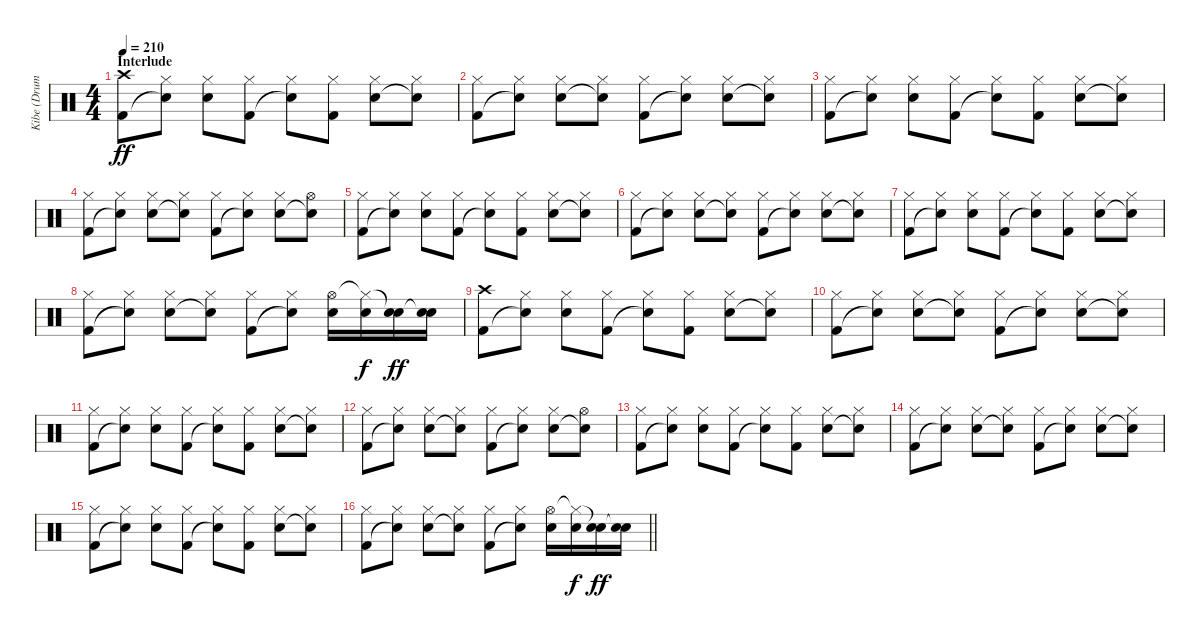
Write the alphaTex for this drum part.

\track ("Kibe (Drums)" "Kibe (Drum") {instrument percussion}
\staff {score}
\articulation defaults
\ts (4 4)
\section ("" "Interlude")
\tempo 210
\clef neutral
\ks c
("Crash high (hit)" "Kick (hit) 2").8{dy ff} ("Hi-Hat (closed)" "Snare (hit)"{t}).8 ("Hi-Hat (closed)" "Snare (hit) 2").8 ("Hi-Hat (closed)" "Kick (hit) 2").8 ("Hi-Hat (closed)" "Snare (hit)"{t}).8 ("Hi-Hat (closed)" "Kick (hit) 2").8 ("Hi-Hat (closed)" "Snare (hit) 2").8 ("Hi-Hat (closed)" "Snare (hit)"{t}).8 |
("Hi-Hat (closed)" "Kick (hit) 2").8 ("Hi-Hat (closed)" "Snare (hit)"{t}).8 ("Hi-Hat (closed)" "Snare (hit) 2").8 ("Hi-Hat (closed)" "Snare (hit)"{t}).8 ("Hi-Hat (closed)" "Kick (hit) 2").8 ("Hi-Hat (closed)" "Snare (hit)"{t}).8 ("Hi-Hat (closed)" "Snare (hit) 2").8 ("Hi-Hat (closed)" "Snare (hit)"{t}).8 |
("Hi-Hat (closed)" "Kick (hit) 2").8 ("Hi-Hat (closed)" "Snare (hit)"{t}).8 ("Hi-Hat (closed)" "Snare (hit) 2").8 ("Hi-Hat (closed)" "Kick (hit) 2").8 ("Hi-Hat (closed)" "Snare (hit)"{t}).8 ("Hi-Hat (closed)" "Kick (hit) 2").8 ("Hi-Hat (closed)" "Snare (hit) 2").8 ("Hi-Hat (closed)" "Snare (hit)"{t}).8 |
("Hi-Hat (closed)" "Kick (hit) 2").8 ("Hi-Hat (closed)" "Snare (hit)"{t}).8 ("Hi-Hat (closed)" "Snare (hit) 2").8 ("Hi-Hat (closed)" "Snare (hit)"{t}).8 ("Hi-Hat (closed)" "Kick (hit) 2").8 ("Hi-Hat (closed)" "Snare (hit)"{t}).8 ("Hi-Hat (closed)" "Snare (hit) 2").8 ("Hi-Hat (open)" "Snare (hit)"{t}).8 |
("Hi-Hat (closed)" "Kick (hit) 2").8 ("Hi-Hat (closed)" "Snare (hit)"{t}).8 ("Hi-Hat (closed)" "Snare (hit) 2").8 ("Hi-Hat (closed)" "Kick (hit) 2").8 ("Hi-Hat (closed)" "Snare (hit)"{t}).8 ("Hi-Hat (closed)" "Kick (hit) 2").8 ("Hi-Hat (closed)" "Snare (hit) 2").8 ("Hi-Hat (closed)" "Snare (hit)"{t}).8 |
("Hi-Hat (closed)" "Kick (hit) 2").8 ("Hi-Hat (closed)" "Snare (hit)"{t}).8 ("Hi-Hat (closed)" "Snare (hit) 2").8 ("Hi-Hat (closed)" "Snare (hit)"{t}).8 ("Hi-Hat (closed)" "Kick (hit) 2").8 ("Hi-Hat (closed)" "Snare (hit)"{t}).8 ("Hi-Hat (closed)" "Snare (hit) 2").8 ("Hi-Hat (closed)" "Snare (hit)"{t}).8 |
("Hi-Hat (closed)" "Kick (hit) 2").8 ("Hi-Hat (closed)" "Snare (hit)"{t}).8 ("Hi-Hat (closed)" "Snare (hit) 2").8 ("Hi-Hat (closed)" "Kick (hit) 2").8 ("Hi-Hat (closed)" "Snare (hit)"{t}).8 ("Hi-Hat (closed)" "Kick (hit) 2").8 ("Hi-Hat (closed)" "Snare (hit) 2").8 ("Hi-Hat (closed)" "Snare (hit)"{t}).8 |
("Hi-Hat (closed)" "Kick (hit) 2").8 ("Hi-Hat (closed)" "Snare (hit)"{t}).8 ("Hi-Hat (closed)" "Snare (hit) 2").8 ("Hi-Hat (closed)" "Snare (hit)"{t}).8 ("Hi-Hat (closed)" "Kick (hit) 2").8 ("Hi-Hat (closed)" "Snare (hit)"{t}).8 ("Hi-Hat (open)" "Snare (hit) 2").16 ("Hi-Hat (closed)"{t} "Snare (hit) 2").16{dy f} ("Snare (hit)"{t} "Snare (hit) 2").16{dy ff} ("Snare (hit)"{t} "Snare (hit) 2").16 |
("Crash high (hit)" "Kick (hit) 2").8 ("Hi-Hat (closed)" "Snare (hit)"{t}).8 ("Hi-Hat (closed)" "Snare (hit) 2").8 ("Hi-Hat (closed)" "Kick (hit) 2").8 ("Hi-Hat (closed)" "Snare (hit)"{t}).8 ("Hi-Hat (closed)" "Kick (hit) 2").8 ("Hi-Hat (closed)" "Snare (hit) 2").8 ("Hi-Hat (closed)" "Snare (hit)"{t}).8 |
("Hi-Hat (closed)" "Kick (hit) 2").8 ("Hi-Hat (closed)" "Snare (hit)"{t}).8 ("Hi-Hat (closed)" "Snare (hit) 2").8 ("Hi-Hat (closed)" "Snare (hit)"{t}).8 ("Hi-Hat (closed)" "Kick (hit) 2").8 ("Hi-Hat (closed)" "Snare (hit)"{t}).8 ("Hi-Hat (closed)" "Snare (hit) 2").8 ("Hi-Hat (closed)" "Snare (hit)"{t}).8 |
("Hi-Hat (closed)" "Kick (hit) 2").8 ("Hi-Hat (closed)" "Snare (hit)"{t}).8 ("Hi-Hat (closed)" "Snare (hit) 2").8 ("Hi-Hat (closed)" "Kick (hit) 2").8 ("Hi-Hat (closed)" "Snare (hit)"{t}).8 ("Hi-Hat (closed)" "Kick (hit) 2").8 ("Hi-Hat (closed)" "Snare (hit) 2").8 ("Hi-Hat (closed)" "Snare (hit)"{t}).8 |
("Hi-Hat (closed)" "Kick (hit) 2").8 ("Hi-Hat (closed)" "Snare (hit)"{t}).8 ("Hi-Hat (closed)" "Snare (hit) 2").8 ("Hi-Hat (closed)" "Snare (hit)"{t}).8 ("Hi-Hat (closed)" "Kick (hit) 2").8 ("Hi-Hat (closed)" "Snare (hit)"{t}).8 ("Hi-Hat (closed)" "Snare (hit) 2").8 ("Hi-Hat (open)" "Snare (hit)"{t}).8 |
("Hi-Hat (closed)" "Kick (hit) 2").8 ("Hi-Hat (closed)" "Snare (hit)"{t}).8 ("Hi-Hat (closed)" "Snare (hit) 2").8 ("Hi-Hat (closed)" "Kick (hit) 2").8 ("Hi-Hat (closed)" "Snare (hit)"{t}).8 ("Hi-Hat (closed)" "Kick (hit) 2").8 ("Hi-Hat (closed)" "Snare (hit) 2").8 ("Hi-Hat (closed)" "Snare (hit)"{t}).8 |
("Hi-Hat (closed)" "Kick (hit) 2").8 ("Hi-Hat (closed)" "Snare (hit)"{t}).8 ("Hi-Hat (closed)" "Snare (hit) 2").8 ("Hi-Hat (closed)" "Snare (hit)"{t}).8 ("Hi-Hat (closed)" "Kick (hit) 2").8 ("Hi-Hat (closed)" "Snare (hit)"{t}).8 ("Hi-Hat (closed)" "Snare (hit) 2").8 ("Hi-Hat (closed)" "Snare (hit)"{t}).8 |
("Hi-Hat (closed)" "Kick (hit) 2").8 ("Hi-Hat (closed)" "Snare (hit)"{t}).8 ("Hi-Hat (closed)" "Snare (hit) 2").8 ("Hi-Hat (closed)" "Kick (hit) 2").8 ("Hi-Hat (closed)" "Snare (hit)"{t}).8 ("Hi-Hat (closed)" "Kick (hit) 2").8 ("Hi-Hat (closed)" "Snare (hit) 2").8 ("Hi-Hat (closed)" "Snare (hit)"{t}).8 |
\barLineRight lightlight
("Hi-Hat (closed)" "Kick (hit) 2").8 ("Hi-Hat (closed)" "Snare (hit)"{t}).8 ("Hi-Hat (closed)" "Snare (hit) 2").8 ("Hi-Hat (closed)" "Snare (hit)"{t}).8 ("Hi-Hat (closed)" "Kick (hit) 2").8 ("Hi-Hat (closed)" "Snare (hit)"{t}).8 ("Hi-Hat (open)" "Snare (hit) 2").16 ("Hi-Hat (closed)"{t} "Snare (hit) 2").16{dy f} ("Snare (hit)"{t} "Snare (hit) 2").16{dy ff} ("Snare (hit)"{t} "Snare (hit) 2").16
